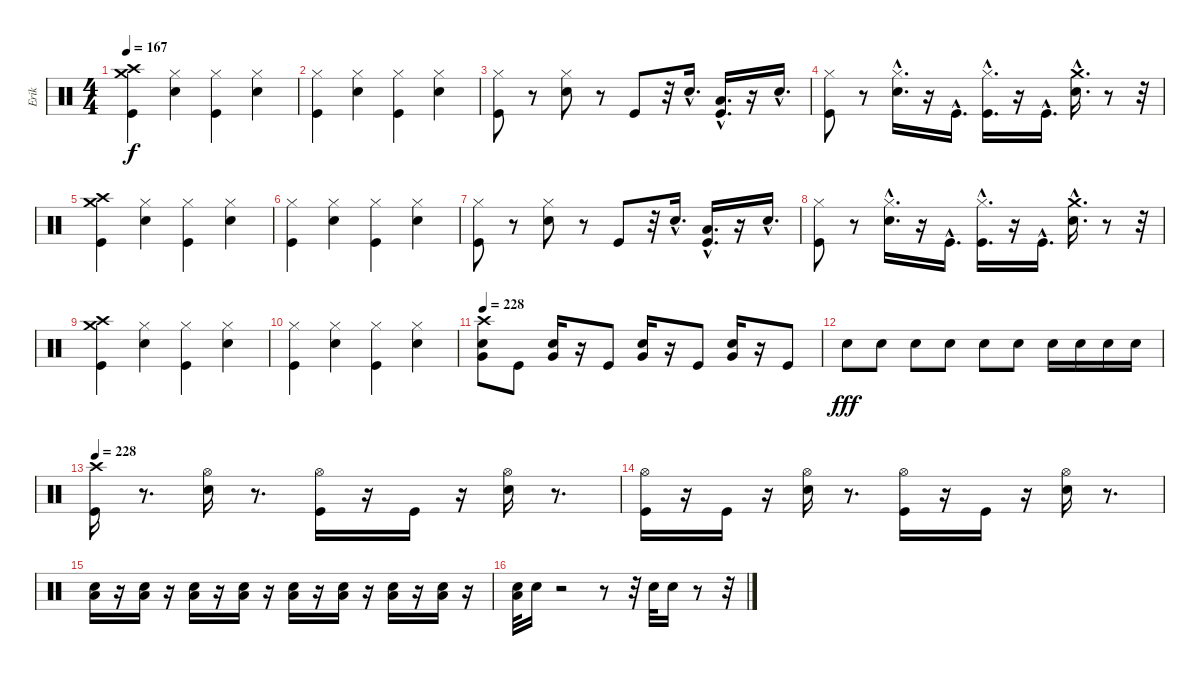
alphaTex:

\track ("Erik" "Erik") {instrument percussion}
\staff {score}
\articulation defaults
\ts (4 4)
\tempo 167
\clef neutral
\ks c
("Crash high (hit)" "Kick (hit)" "Crash medium (hit)").4{dy f} ("Electric Snare (hit)" "Hi-Hat (closed)").4 ("Hi-Hat (closed)" "Kick (hit)").4 ("Hi-Hat (closed)" "Electric Snare (hit)").4 |
("Kick (hit)" "Hi-Hat (closed)").4 ("Hi-Hat (closed)" "Electric Snare (hit)").4 ("Hi-Hat (closed)" "Kick (hit)").4 ("Hi-Hat (closed)" "Electric Snare (hit)").4 |
("Hi-Hat (closed)" "Kick (hit)").8 r.8 ("Hi-Hat (closed)" "Electric Snare (hit)").8 r.8 "Kick (hit)".8 r.32 "Electric Snare (hit)"{hac}.16{d} ("Kick (hit)"{hac} "Low Tom (hit)"{hac}).16{d} r.16 "Electric Snare (hit)"{hac}.16{d} |
("Hi-Hat (closed)" "Kick (hit)").8 r.8 ("Hi-Hat (closed)"{hac} "Electric Snare (hit)"{hac}).16{d} r.16 "Kick (hit)"{hac}.16{d} ("Hi-Hat (closed)"{hac} "Kick (hit)"{hac}).16{d} r.16 "Kick (hit)"{hac}.16{d} ("Electric Snare (hit)"{hac} "Crash medium (hit)"{hac}).16{d} r.8 r.32 |
("Crash high (hit)" "Kick (hit)" "Crash medium (hit)").4 ("Electric Snare (hit)" "Hi-Hat (closed)").4 ("Hi-Hat (closed)" "Kick (hit)").4 ("Hi-Hat (closed)" "Electric Snare (hit)").4 |
("Kick (hit)" "Hi-Hat (closed)").4 ("Hi-Hat (closed)" "Electric Snare (hit)").4 ("Hi-Hat (closed)" "Kick (hit)").4 ("Hi-Hat (closed)" "Electric Snare (hit)").4 |
("Hi-Hat (closed)" "Kick (hit)").8 r.8 ("Hi-Hat (closed)" "Electric Snare (hit)").8 r.8 "Kick (hit)".8 r.32 "Electric Snare (hit)"{hac}.16{d} ("Kick (hit)"{hac} "Low Tom (hit)"{hac}).16{d} r.16 "Electric Snare (hit)"{hac}.16{d} |
("Hi-Hat (closed)" "Kick (hit)").8 r.8 ("Hi-Hat (closed)"{hac} "Electric Snare (hit)"{hac}).16{d} r.16 "Kick (hit)"{hac}.16{d} ("Hi-Hat (closed)"{hac} "Kick (hit)"{hac}).16{d} r.16 "Kick (hit)"{hac}.16{d} ("Electric Snare (hit)"{hac} "Crash medium (hit)"{hac}).16{d} r.8 r.32 |
("Crash high (hit)" "Kick (hit)" "Crash medium (hit)").4 ("Electric Snare (hit)" "Hi-Hat (closed)").4 ("Hi-Hat (closed)" "Kick (hit)").4 ("Hi-Hat (closed)" "Electric Snare (hit)").4 |
("Kick (hit)" "Hi-Hat (closed)").4 ("Hi-Hat (closed)" "Electric Snare (hit)").4 ("Hi-Hat (closed)" "Kick (hit)").4 ("Hi-Hat (closed)" "Electric Snare (hit)").4 |
\tempo 228
("Electric Snare (hit)" "Very Low Tom (hit)" "Crash high (hit)").8 "Kick (hit)".8 ("Electric Snare (hit)" "Very Low Tom (hit)").16 r.16 "Kick (hit)".8 ("Electric Snare (hit)" "Very Low Tom (hit)").16 r.16 "Kick (hit)".8 ("Electric Snare (hit)" "Very Low Tom (hit)").16 r.16 "Kick (hit)".8 |
"Electric Snare (hit)".8{dy fff} "Electric Snare (hit)".8 "Electric Snare (hit)".8 "Electric Snare (hit)".8 "Electric Snare (hit)".8 "Electric Snare (hit)".8 "Electric Snare (hit)".16 "Electric Snare (hit)".16 "Electric Snare (hit)".16 "Electric Snare (hit)".16 |
\tempo 228
("Crash high (hit)" "Kick (hit)").16 r.8{d} ("Hi-Hat (open)" "Electric Snare (hit)").16 r.8{d} ("Kick (hit)" "Hi-Hat (open)").16 r.16 "Kick (hit)".16 r.16 ("Electric Snare (hit)" "Hi-Hat (open)").16 r.8{d} |
("Hi-Hat (open)" "Kick (hit)").16 r.16 "Kick (hit)".16 r.16 ("Hi-Hat (open)" "Electric Snare (hit)").16 r.8{d} ("Kick (hit)" "Hi-Hat (open)").16 r.16 "Kick (hit)".16 r.16 ("Electric Snare (hit)" "Hi-Hat (open)").16 r.8{d} |
("Low Floor Tom (hit)" "Electric Snare (hit)").16 r.16 ("Low Floor Tom (hit)" "Electric Snare (hit)").16 r.16 ("Electric Snare (hit)" "Low Floor Tom (hit)").16 r.16 ("Electric Snare (hit)" "Low Floor Tom (hit)").16 r.16 ("Electric Snare (hit)" "Low Floor Tom (hit)").16 r.16 ("Electric Snare (hit)" "Low Floor Tom (hit)").16 r.16 ("Low Floor Tom (hit)" "Electric Snare (hit)").16 r.16 ("Low Floor Tom (hit)" "Electric Snare (hit)").16 r.16 |
("Electric Snare (hit)" "Low Floor Tom (hit)").32 "Electric Snare (hit)".16 r.2 r.8 r.32 "Electric Snare (hit)".32 "Electric Snare (hit)".16 r.8 r.32
